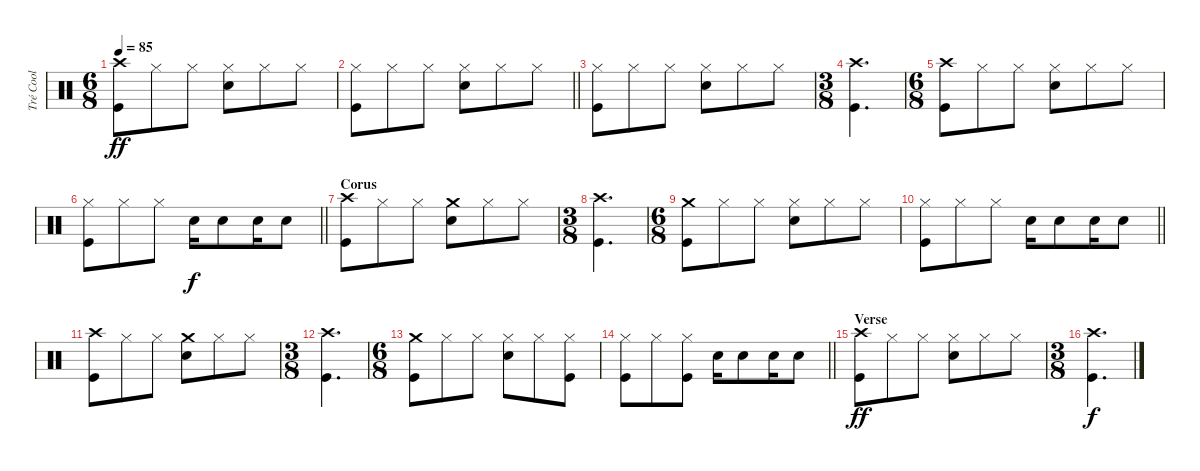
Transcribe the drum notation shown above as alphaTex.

\track ("Tré Cool" "Tré Cool") {instrument percussion}
\staff {score}
\articulation defaults
\ts (6 8)
\tempo 85
\clef neutral
\ks c
("Crash high (hit)" "Kick (hit)").8{dy ff} "Hi-Hat (closed)".8 "Hi-Hat (closed)".8 ("Hi-Hat (closed)" "Snare (hit) 2").8 "Hi-Hat (closed)".8 "Hi-Hat (closed)".8 |
\barLineRight lightlight
("Hi-Hat (closed)" "Kick (hit)").8 "Hi-Hat (closed)".8 "Hi-Hat (closed)".8 ("Hi-Hat (closed)" "Snare (hit) 2").8 "Hi-Hat (closed)".8 "Hi-Hat (closed)".8 |
("Hi-Hat (closed)" "Kick (hit)").8 "Hi-Hat (closed)".8 "Hi-Hat (closed)".8 ("Hi-Hat (closed)" "Snare (hit) 2").8 "Hi-Hat (closed)".8 "Hi-Hat (closed)".8 |
\ts (3 8)
("Crash high (hit)" "Kick (hit)").4{d} |
\ts (6 8)
("Crash high (hit)" "Kick (hit)").8 "Hi-Hat (closed)".8 "Hi-Hat (closed)".8 ("Hi-Hat (closed)" "Snare (hit) 2").8 "Hi-Hat (closed)".8 "Hi-Hat (closed)".8 |
\barLineRight lightlight
("Hi-Hat (closed)" "Kick (hit)").8 "Hi-Hat (closed)".8 "Hi-Hat (closed)".8 "Snare (hit) 2".16{dy f} "Snare (hit) 2".8 "Snare (hit) 2".16 "Snare (hit) 2".8 |
\section ("" "Corus")
("Crash high (hit)" "Kick (hit)").8 "Hi-Hat (closed)".8 "Hi-Hat (closed)".8 ("Crash medium (hit)" "Snare (hit) 2").8 "Hi-Hat (closed)".8 "Hi-Hat (closed)".8 |
\ts (3 8)
("Crash high (hit)" "Kick (hit)").4{d} |
\ts (6 8)
("Crash medium (hit)" "Kick (hit)").8 "Hi-Hat (closed)".8 "Hi-Hat (closed)".8 ("Hi-Hat (closed)" "Snare (hit) 2").8 "Hi-Hat (closed)".8 "Hi-Hat (closed)".8 |
\barLineRight lightlight
("Hi-Hat (closed)" "Kick (hit)").8 "Hi-Hat (closed)".8 "Hi-Hat (closed)".8 "Snare (hit) 2".16 "Snare (hit) 2".8 "Snare (hit) 2".16 "Snare (hit) 2".8 |
("Crash high (hit)" "Kick (hit)").8 "Hi-Hat (closed)".8 "Hi-Hat (closed)".8 ("Crash medium (hit)" "Snare (hit) 2").8 "Hi-Hat (closed)".8 "Hi-Hat (closed)".8 |
\ts (3 8)
("Crash high (hit)" "Kick (hit)").4{d} |
\ts (6 8)
("Crash medium (hit)" "Kick (hit)").8 "Hi-Hat (closed)".8 "Hi-Hat (closed)".8 ("Hi-Hat (closed)" "Snare (hit) 2").8 "Hi-Hat (closed)".8 ("Hi-Hat (closed)" "Kick (hit)").8 |
\barLineRight lightlight
("Hi-Hat (closed)" "Kick (hit)").8 "Hi-Hat (closed)".8 ("Hi-Hat (closed)" "Kick (hit)").8 "Snare (hit) 2".16 "Snare (hit) 2".8 "Snare (hit) 2".16 "Snare (hit) 2".8 |
\section ("" "Verse")
("Crash high (hit)" "Kick (hit)").8{dy ff} "Hi-Hat (closed)".8 "Hi-Hat (closed)".8 ("Hi-Hat (closed)" "Snare (hit) 2").8 "Hi-Hat (closed)".8 "Hi-Hat (closed)".8 |
\ts (3 8)
("Crash high (hit)" "Kick (hit)").4{d dy f}
